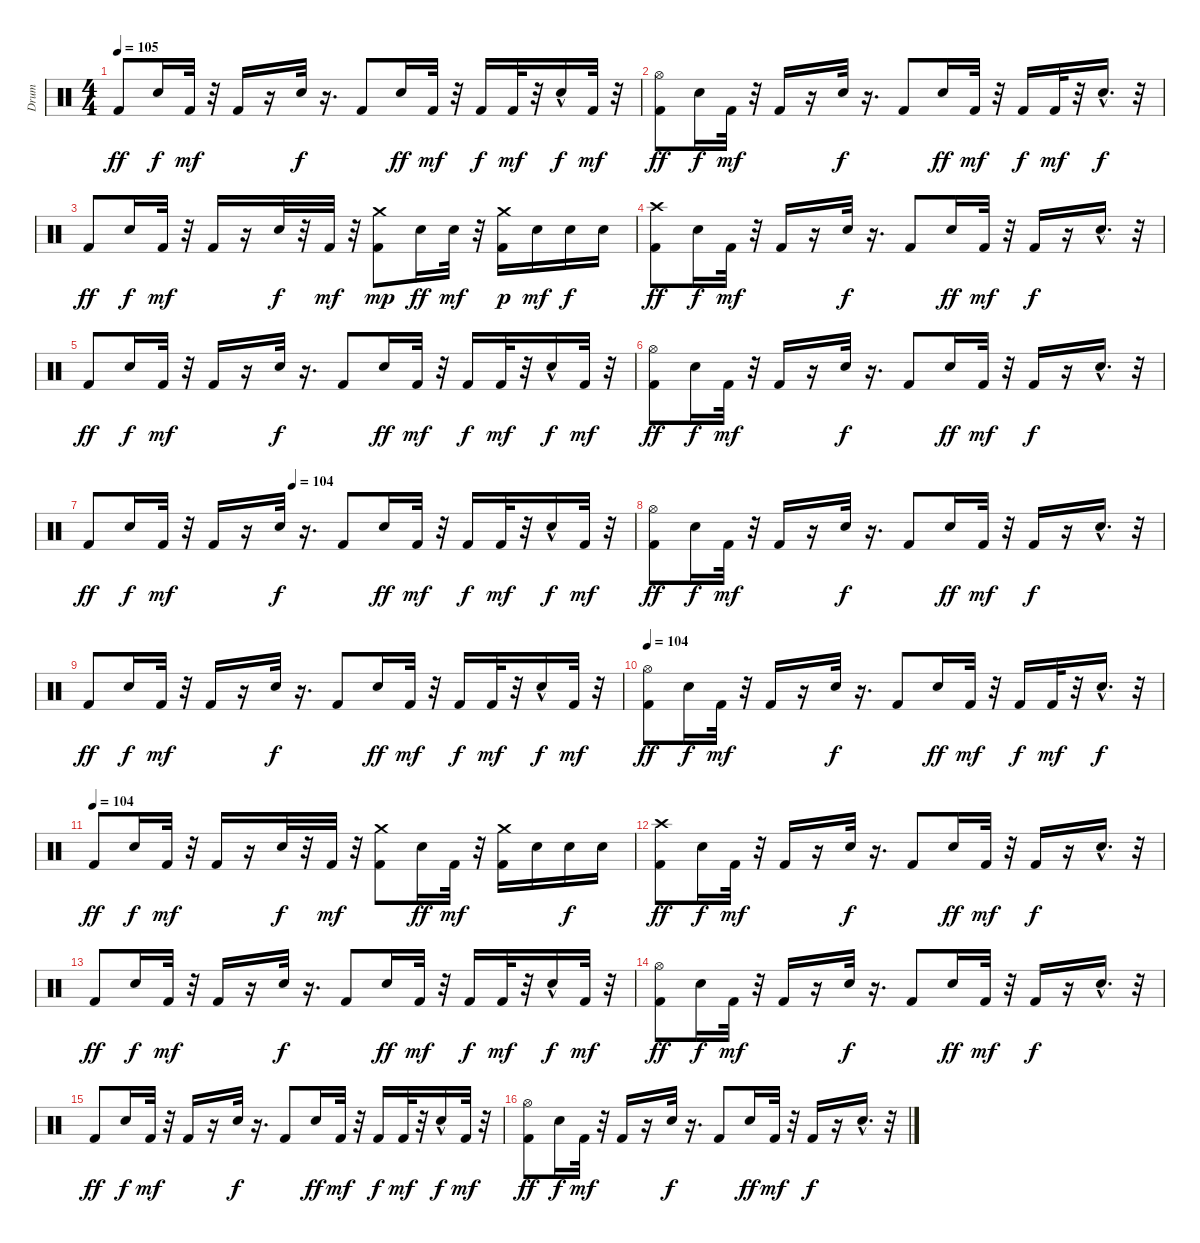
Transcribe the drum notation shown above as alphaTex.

\track ("Drum" "Drum") {instrument percussion}
\staff {score}
\articulation defaults
\ts (4 4)
\tempo 105
\clef neutral
\ks c "Kick (hit) 2".8{dy ff} "Electric Snare (hit)".16{dy f} "Kick (hit) 2".32{dy mf}
r.32 "Kick (hit) 2".16 r.16 "Electric Snare (hit)".32{dy f} r.16{d} "Kick (hit) 2".8 "Electric Snare (hit)".16{dy ff} "Kick (hit) 2".32{dy mf} r.32 "Kick (hit) 2".16{dy f} "Kick (hit) 2".32{dy mf} r.32 "Electric Snare (hit)"{hac}.16{dy f} "Kick (hit) 2".32{dy mf} r.32 |
("Hi-Hat (open)" "Kick (hit) 2").8{dy ff} "Electric Snare (hit)".16{dy f} "Kick (hit) 2".32{dy mf} r.32 "Kick (hit) 2".16 r.16 "Electric Snare (hit)".32{dy f} r.16{d} "Kick (hit) 2".8 "Electric Snare (hit)".16{dy ff} "Kick (hit) 2".32{dy mf} r.32 "Kick (hit) 2".16{dy f} "Kick (hit) 2".32{dy mf} r.32 "Electric Snare (hit)"{hac}.16{d dy f} r.32 |
"Kick (hit) 2".8{dy ff} "Electric Snare (hit)".16{dy f} "Kick (hit) 2".32{dy mf} r.32 "Kick (hit) 2".16 r.16 "Electric Snare (hit)".32{dy f} r.32 "Kick (hit) 2".32{dy mf} r.32 ("Crash medium (hit)" "Kick (hit) 2").8{dy mp} "Electric Snare (hit)".16{dy ff} "Electric Snare (hit)".32{dy mf} r.32 ("Crash medium (hit)" "Kick (hit) 2").16{dy p} "Electric Snare (hit)".16{dy mf} "Electric Snare (hit)".16{dy f} "Electric Snare (hit)".16 |
("Crash high (hit)" "Kick (hit) 2").8{dy ff} "Electric Snare (hit)".16{dy f} "Kick (hit) 2".32{dy mf} r.32 "Kick (hit) 2".16 r.16 "Electric Snare (hit)".32{dy f} r.16{d} "Kick (hit) 2".8 "Electric Snare (hit)".16{dy ff} "Kick (hit) 2".32{dy mf} r.32 "Kick (hit) 2".16{dy f} r.16 "Electric Snare (hit)"{hac}.16{d} r.32 |
"Kick (hit) 2".8{dy ff} "Electric Snare (hit)".16{dy f} "Kick (hit) 2".32{dy mf} r.32 "Kick (hit) 2".16 r.16 "Electric Snare (hit)".32{dy f} r.16{d} "Kick (hit) 2".8 "Electric Snare (hit)".16{dy ff} "Kick (hit) 2".32{dy mf} r.32 "Kick (hit) 2".16{dy f} "Kick (hit) 2".32{dy mf} r.32 "Electric Snare (hit)"{hac}.16{dy f} "Kick (hit) 2".32{dy mf} r.32 |
("Hi-Hat (open)" "Kick (hit) 2").8{dy ff} "Electric Snare (hit)".16{dy f} "Kick (hit) 2".32{dy mf} r.32 "Kick (hit) 2".16 r.16 "Electric Snare (hit)".32{dy f} r.16{d} "Kick (hit) 2".8 "Electric Snare (hit)".16{dy ff} "Kick (hit) 2".32{dy mf} r.32 "Kick (hit) 2".16{dy f} r.16 "Electric Snare (hit)"{hac}.16{d} r.32 |
\tempo (104 0.375)
"Kick (hit) 2".8{dy ff} "Electric Snare (hit)".16{dy f} "Kick (hit) 2".32{dy mf} r.32 "Kick (hit) 2".16 r.16 "Electric Snare (hit)".32{dy f} r.16{d} "Kick (hit) 2".8 "Electric Snare (hit)".16{dy ff} "Kick (hit) 2".32{dy mf} r.32 "Kick (hit) 2".16{dy f} "Kick (hit) 2".32{dy mf} r.32 "Electric Snare (hit)"{hac}.16{dy f} "Kick (hit) 2".32{dy mf} r.32 |
("Hi-Hat (open)" "Kick (hit) 2").8{dy ff} "Electric Snare (hit)".16{dy f} "Kick (hit) 2".32{dy mf} r.32 "Kick (hit) 2".16 r.16 "Electric Snare (hit)".32{dy f} r.16{d} "Kick (hit) 2".8 "Electric Snare (hit)".16{dy ff} "Kick (hit) 2".32{dy mf} r.32 "Kick (hit) 2".16{dy f} r.16 "Electric Snare (hit)"{hac}.16{d} r.32 |
"Kick (hit) 2".8{dy ff} "Electric Snare (hit)".16{dy f} "Kick (hit) 2".32{dy mf} r.32 "Kick (hit) 2".16 r.16 "Electric Snare (hit)".32{dy f} r.16{d} "Kick (hit) 2".8 "Electric Snare (hit)".16{dy ff} "Kick (hit) 2".32{dy mf} r.32 "Kick (hit) 2".16{dy f} "Kick (hit) 2".32{dy mf} r.32 "Electric Snare (hit)"{hac}.16{dy f} "Kick (hit) 2".32{dy mf} r.32 |
\tempo 104
("Hi-Hat (open)" "Kick (hit) 2").8{dy ff} "Electric Snare (hit)".16{dy f} "Kick (hit) 2".32{dy mf} r.32 "Kick (hit) 2".16 r.16 "Electric Snare (hit)".32{dy f} r.16{d} "Kick (hit) 2".8 "Electric Snare (hit)".16{dy ff} "Kick (hit) 2".32{dy mf} r.32 "Kick (hit) 2".16{dy f} "Kick (hit) 2".32{dy mf} r.32 "Electric Snare (hit)"{hac}.16{d dy f} r.32 |
\tempo (104)
"Kick (hit) 2".8{dy ff} "Electric Snare (hit)".16{dy f} "Kick (hit) 2".32{dy mf} r.32 "Kick (hit) 2".16 r.16 "Electric Snare (hit)".32{dy f} r.32 "Kick (hit) 2".32{dy mf} r.32 ("Crash medium (hit)" "Kick (hit) 2").8 "Electric Snare (hit)".16{dy ff} "Kick (hit) 2".32{dy mf} r.32 ("Crash medium (hit)" "Kick (hit) 2").16 "Electric Snare (hit)".16 "Electric Snare (hit)".16{dy f} "Electric Snare (hit)".16 |
("Crash high (hit)" "Kick (hit) 2").8{dy ff} "Electric Snare (hit)".16{dy f} "Kick (hit) 2".32{dy mf} r.32 "Kick (hit) 2".16 r.16 "Electric Snare (hit)".32{dy f} r.16{d} "Kick (hit) 2".8 "Electric Snare (hit)".16{dy ff} "Kick (hit) 2".32{dy mf} r.32 "Kick (hit) 2".16{dy f} r.16 "Electric Snare (hit)"{hac}.16{d} r.32 |
"Kick (hit) 2".8{dy ff} "Electric Snare (hit)".16{dy f} "Kick (hit) 2".32{dy mf} r.32 "Kick (hit) 2".16 r.16 "Electric Snare (hit)".32{dy f} r.16{d} "Kick (hit) 2".8 "Electric Snare (hit)".16{dy ff} "Kick (hit) 2".32{dy mf} r.32 "Kick (hit) 2".16{dy f} "Kick (hit) 2".32{dy mf} r.32 "Electric Snare (hit)"{hac}.16{dy f} "Kick (hit) 2".32{dy mf} r.32 |
("Hi-Hat (open)" "Kick (hit) 2").8{dy ff} "Electric Snare (hit)".16{dy f} "Kick (hit) 2".32{dy mf} r.32 "Kick (hit) 2".16 r.16 "Electric Snare (hit)".32{dy f} r.16{d} "Kick (hit) 2".8 "Electric Snare (hit)".16{dy ff} "Kick (hit) 2".32{dy mf} r.32 "Kick (hit) 2".16{dy f} r.16 "Electric Snare (hit)"{hac}.16{d} r.32 |
"Kick (hit) 2".8{dy ff} "Electric Snare (hit)".16{dy f} "Kick (hit) 2".32{dy mf} r.32 "Kick (hit) 2".16 r.16 "Electric Snare (hit)".32{dy f} r.16{d} "Kick (hit) 2".8 "Electric Snare (hit)".16{dy ff} "Kick (hit) 2".32{dy mf} r.32 "Kick (hit) 2".16{dy f} "Kick (hit) 2".32{dy mf} r.32 "Electric Snare (hit)"{hac}.16{dy f} "Kick (hit) 2".32{dy mf} r.32 |
("Hi-Hat (open)" "Kick (hit) 2").8{dy ff} "Electric Snare (hit)".16{dy f} "Kick (hit) 2".32{dy mf} r.32 "Kick (hit) 2".16 r.16 "Electric Snare (hit)".32{dy f} r.16{d} "Kick (hit) 2".8 "Electric Snare (hit)".16{dy ff} "Kick (hit) 2".32{dy mf} r.32 "Kick (hit) 2".16{dy f} r.16 "Electric Snare (hit)"{hac}.16{d} r.32
